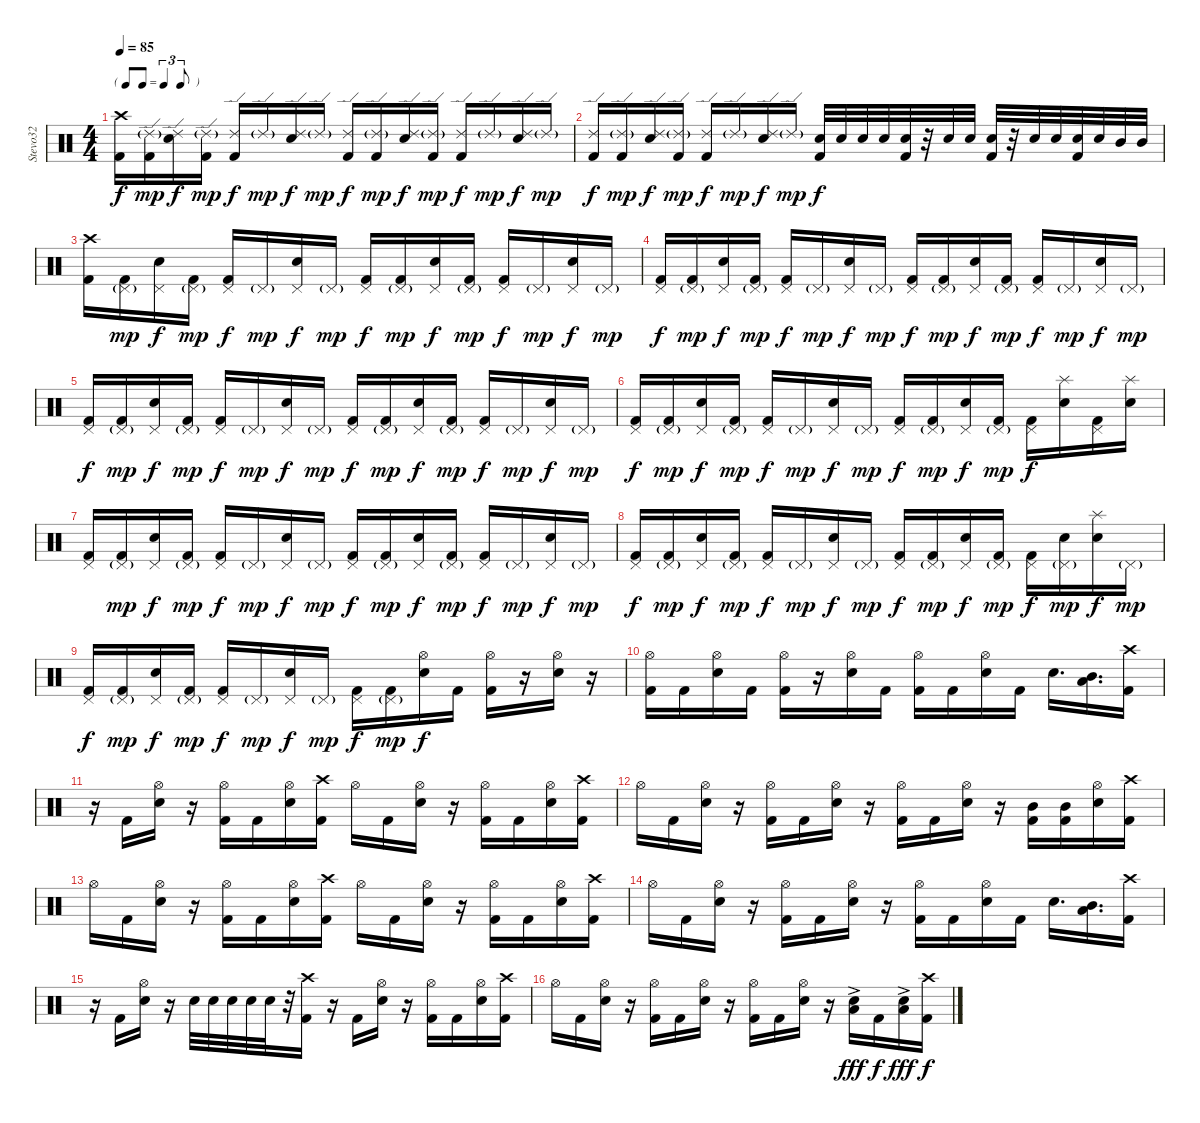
\track ("Stevo32" "Stevo32") {instrument percussion}
\staff {score}
\articulation defaults
\ts (4 4)
\tf triplet8th
\tempo 85
\clef neutral
\ks c
("Crash high (hit)" "Kick (hit) 2").16{dy f} ("Ride (edge) 2"{g} "Kick (hit) 2").16{dy mp} ("Ride (edge) 2" "Electric Snare (hit)").16{dy f} ("Ride (edge) 2"{g} "Kick (hit) 2").16{dy mp} ("Ride (edge) 2" "Kick (hit) 2").16{dy f} "Ride (edge) 2"{g}.16{dy mp} ("Ride (edge) 2" "Electric Snare (hit)").16{dy f} "Ride (edge) 2"{g}.16{dy mp} ("Ride (edge) 2" "Kick (hit) 2").16{dy f} ("Ride (edge) 2"{g} "Kick (hit) 2").16{dy mp} ("Ride (edge) 2" "Electric Snare (hit)").16{dy f} ("Ride (edge) 2"{g} "Kick (hit) 2").16{dy mp} ("Ride (edge) 2" "Kick (hit) 2").16{dy f} "Ride (edge) 2"{g}.16{dy mp} ("Ride (edge) 2" "Electric Snare (hit)").16{dy f} "Ride (edge) 2"{g}.16{dy mp} |
("Ride (edge) 2" "Kick (hit) 2").16{dy f} ("Ride (edge) 2"{g} "Kick (hit) 2").16{dy mp} ("Ride (edge) 2" "Electric Snare (hit)").16{dy f} ("Ride (edge) 2"{g} "Kick (hit) 2").16{dy mp} ("Ride (edge) 2" "Kick (hit) 2").16{dy f} "Ride (edge) 2"{g}.16{dy mp} ("Ride (edge) 2" "Electric Snare (hit)").16{dy f} "Ride (edge) 2"{g}.16{dy mp} ("Electric Snare (hit)" "Kick (hit) 2").32{dy f} "Electric Snare (hit)".32 "Electric Snare (hit)".32 "Electric Snare (hit)".32 ("Electric Snare (hit)" "Kick (hit) 2").32 r.32 "Electric Snare (hit)".32 "Electric Snare (hit)".32 ("Electric Snare (hit)" "Kick (hit) 2").32 r.32 "Electric Snare (hit)".32 "Electric Snare (hit)".32 ("Electric Snare (hit)" "Kick (hit) 2").32 "Electric Snare (hit)".32 "Mid Tom (hit)".32 "Mid Tom (hit)".32 |
("Crash high (hit)" "Kick (hit) 2").16 ("Pedal Hi-Hat (hit)"{g} "Kick (hit) 2").16{dy mp} ("Pedal Hi-Hat (hit)" "Electric Snare (hit)").16{dy f} ("Pedal Hi-Hat (hit)"{g} "Kick (hit) 2").16{dy mp} ("Pedal Hi-Hat (hit)" "Kick (hit) 2").16{dy f} "Pedal Hi-Hat (hit)"{g}.16{dy mp} ("Pedal Hi-Hat (hit)" "Electric Snare (hit)").16{dy f} "Pedal Hi-Hat (hit)"{g}.16{dy mp} ("Pedal Hi-Hat (hit)" "Kick (hit) 2").16{dy f} ("Pedal Hi-Hat (hit)"{g} "Kick (hit) 2").16{dy mp} ("Pedal Hi-Hat (hit)" "Electric Snare (hit)").16{dy f} ("Pedal Hi-Hat (hit)"{g} "Kick (hit) 2").16{dy mp} ("Pedal Hi-Hat (hit)" "Kick (hit) 2").16{dy f} "Pedal Hi-Hat (hit)"{g}.16{dy mp} ("Pedal Hi-Hat (hit)" "Electric Snare (hit)").16{dy f} "Pedal Hi-Hat (hit)"{g}.16{dy mp} |
("Pedal Hi-Hat (hit)" "Kick (hit) 2").16{dy f} ("Pedal Hi-Hat (hit)"{g} "Kick (hit) 2").16{dy mp} ("Pedal Hi-Hat (hit)" "Electric Snare (hit)").16{dy f} ("Pedal Hi-Hat (hit)"{g} "Kick (hit) 2").16{dy mp} ("Pedal Hi-Hat (hit)" "Kick (hit) 2").16{dy f} "Pedal Hi-Hat (hit)"{g}.16{dy mp} ("Pedal Hi-Hat (hit)" "Electric Snare (hit)").16{dy f} "Pedal Hi-Hat (hit)"{g}.16{dy mp} ("Pedal Hi-Hat (hit)" "Kick (hit) 2").16{dy f} ("Pedal Hi-Hat (hit)"{g} "Kick (hit) 2").16{dy mp} ("Pedal Hi-Hat (hit)" "Electric Snare (hit)").16{dy f} ("Pedal Hi-Hat (hit)"{g} "Kick (hit) 2").16{dy mp} ("Pedal Hi-Hat (hit)" "Kick (hit) 2").16{dy f} "Pedal Hi-Hat (hit)"{g}.16{dy mp} ("Pedal Hi-Hat (hit)" "Electric Snare (hit)").16{dy f} "Pedal Hi-Hat (hit)"{g}.16{dy mp} |
("Pedal Hi-Hat (hit)" "Kick (hit) 2").16{dy f} ("Pedal Hi-Hat (hit)"{g} "Kick (hit) 2").16{dy mp} ("Pedal Hi-Hat (hit)" "Electric Snare (hit)").16{dy f} ("Pedal Hi-Hat (hit)"{g} "Kick (hit) 2").16{dy mp} ("Pedal Hi-Hat (hit)" "Kick (hit) 2").16{dy f} "Pedal Hi-Hat (hit)"{g}.16{dy mp} ("Pedal Hi-Hat (hit)" "Electric Snare (hit)").16{dy f} "Pedal Hi-Hat (hit)"{g}.16{dy mp} ("Pedal Hi-Hat (hit)" "Kick (hit) 2").16{dy f} ("Pedal Hi-Hat (hit)"{g} "Kick (hit) 2").16{dy mp} ("Pedal Hi-Hat (hit)" "Electric Snare (hit)").16{dy f} ("Pedal Hi-Hat (hit)"{g} "Kick (hit) 2").16{dy mp} ("Pedal Hi-Hat (hit)" "Kick (hit) 2").16{dy f} "Pedal Hi-Hat (hit)"{g}.16{dy mp} ("Pedal Hi-Hat (hit)" "Electric Snare (hit)").16{dy f} "Pedal Hi-Hat (hit)"{g}.16{dy mp} |
("Pedal Hi-Hat (hit)" "Kick (hit) 2").16{dy f} ("Pedal Hi-Hat (hit)"{g} "Kick (hit) 2").16{dy mp} ("Pedal Hi-Hat (hit)" "Electric Snare (hit)").16{dy f} ("Pedal Hi-Hat (hit)"{g} "Kick (hit) 2").16{dy mp} ("Pedal Hi-Hat (hit)" "Kick (hit) 2").16{dy f} "Pedal Hi-Hat (hit)"{g}.16{dy mp} ("Pedal Hi-Hat (hit)" "Electric Snare (hit)").16{dy f} "Pedal Hi-Hat (hit)"{g}.16{dy mp} ("Pedal Hi-Hat (hit)" "Kick (hit) 2").16{dy f} ("Pedal Hi-Hat (hit)"{g} "Kick (hit) 2").16{dy mp} ("Pedal Hi-Hat (hit)" "Electric Snare (hit)").16{dy f} ("Pedal Hi-Hat (hit)"{g} "Kick (hit) 2").16{dy mp} ("Pedal Hi-Hat (hit)" "Kick (hit) 2").16{dy f} ("Splash (hit)" "Electric Snare (hit)").16 ("Pedal Hi-Hat (hit)" "Kick (hit) 2").16 ("Splash (hit)" "Electric Snare (hit)").16 |
("Pedal Hi-Hat (hit)" "Kick (hit) 2").16 ("Pedal Hi-Hat (hit)"{g} "Kick (hit) 2").16{dy mp} ("Pedal Hi-Hat (hit)" "Electric Snare (hit)").16{dy f} ("Pedal Hi-Hat (hit)"{g} "Kick (hit) 2").16{dy mp} ("Pedal Hi-Hat (hit)" "Kick (hit) 2").16{dy f} "Pedal Hi-Hat (hit)"{g}.16{dy mp} ("Pedal Hi-Hat (hit)" "Electric Snare (hit)").16{dy f} "Pedal Hi-Hat (hit)"{g}.16{dy mp} ("Pedal Hi-Hat (hit)" "Kick (hit) 2").16{dy f} ("Pedal Hi-Hat (hit)"{g} "Kick (hit) 2").16{dy mp} ("Pedal Hi-Hat (hit)" "Electric Snare (hit)").16{dy f} ("Pedal Hi-Hat (hit)"{g} "Kick (hit) 2").16{dy mp} ("Pedal Hi-Hat (hit)" "Kick (hit) 2").16{dy f} "Pedal Hi-Hat (hit)"{g}.16{dy mp} ("Pedal Hi-Hat (hit)" "Electric Snare (hit)").16{dy f} "Pedal Hi-Hat (hit)"{g}.16{dy mp} |
("Pedal Hi-Hat (hit)" "Kick (hit) 2").16{dy f} ("Pedal Hi-Hat (hit)"{g} "Kick (hit) 2").16{dy mp} ("Pedal Hi-Hat (hit)" "Electric Snare (hit)").16{dy f} ("Pedal Hi-Hat (hit)"{g} "Kick (hit) 2").16{dy mp} ("Pedal Hi-Hat (hit)" "Kick (hit) 2").16{dy f} "Pedal Hi-Hat (hit)"{g}.16{dy mp} ("Pedal Hi-Hat (hit)" "Electric Snare (hit)").16{dy f} "Pedal Hi-Hat (hit)"{g}.16{dy mp} ("Pedal Hi-Hat (hit)" "Kick (hit) 2").16{dy f} ("Pedal Hi-Hat (hit)"{g} "Kick (hit) 2").16{dy mp} ("Pedal Hi-Hat (hit)" "Electric Snare (hit)").16{dy f} ("Pedal Hi-Hat (hit)"{g} "Kick (hit) 2").16{dy mp} ("Pedal Hi-Hat (hit)" "Kick (hit) 2").16{dy f} ("Pedal Hi-Hat (hit)"{g} "Electric Snare (hit)").16{dy mp} ("Splash (hit)" "Electric Snare (hit)").16{dy f} "Pedal Hi-Hat (hit)"{g}.16{dy mp} |
("Pedal Hi-Hat (hit)" "Kick (hit) 2").16{dy f} ("Pedal Hi-Hat (hit)"{g} "Kick (hit) 2").16{dy mp} ("Pedal Hi-Hat (hit)" "Electric Snare (hit)").16{dy f} ("Pedal Hi-Hat (hit)"{g} "Kick (hit) 2").16{dy mp} ("Pedal Hi-Hat (hit)" "Kick (hit) 2").16{dy f} "Pedal Hi-Hat (hit)"{g}.16{dy mp} ("Pedal Hi-Hat (hit)" "Electric Snare (hit)").16{dy f} "Pedal Hi-Hat (hit)"{g}.16{dy mp} ("Pedal Hi-Hat (hit)" "Kick (hit) 2").16{dy f} ("Pedal Hi-Hat (hit)"{g} "Kick (hit) 2").16{dy mp} ("Hi-Hat (open)" "Electric Snare (hit)").16{dy f} "Kick (hit) 2".16 ("Hi-Hat (open)" "Kick (hit) 2").16 r.16 ("Hi-Hat (open)" "Electric Snare (hit)").16 r.16 |
("Hi-Hat (open)" "Kick (hit) 2").16 "Kick (hit) 2".16 ("Hi-Hat (open)" "Electric Snare (hit)").16 "Kick (hit) 2".16 ("Hi-Hat (open)" "Kick (hit) 2").16 r.16 ("Hi-Hat (open)" "Electric Snare (hit)").16 "Kick (hit) 2".16 ("Hi-Hat (open)" "Kick (hit) 2").16 "Kick (hit) 2".16 ("Hi-Hat (open)" "Electric Snare (hit)").16 "Kick (hit) 2".16 "Electric Snare (hit)".16{d} ("Low Tom (hit)" "Mid Tom (hit)").16{d} ("Crash high (hit)" "Kick (hit) 2").16 |
r.16 "Kick (hit) 2".16 ("Hi-Hat (open)" "Electric Snare (hit)").16 r.16 ("Hi-Hat (open)" "Kick (hit) 2").16 "Kick (hit) 2".16 ("Hi-Hat (open)" "Electric Snare (hit)").16 ("Crash high (hit)" "Kick (hit) 2").16 "Hi-Hat (open)".16 "Kick (hit) 2".16 ("Hi-Hat (open)" "Electric Snare (hit)").16 r.16 ("Hi-Hat (open)" "Kick (hit) 2").16 "Kick (hit) 2".16 ("Hi-Hat (open)" "Electric Snare (hit)").16 ("Crash high (hit)" "Kick (hit) 2").16 |
"Hi-Hat (open)".16 "Kick (hit) 2".16 ("Hi-Hat (open)" "Electric Snare (hit)").16 r.16 ("Hi-Hat (open)" "Kick (hit) 2").16 "Kick (hit) 2".16 ("Hi-Hat (open)" "Electric Snare (hit)").16 r.16 ("Hi-Hat (open)" "Kick (hit) 2").16 "Kick (hit) 2".16 ("Hi-Hat (open)" "Electric Snare (hit)").16 r.16 ("Mid Tom (hit)" "Kick (hit) 2").16 ("Mid Tom (hit)" "Kick (hit) 2").16 ("Hi-Hat (open)" "Electric Snare (hit)").16 ("Crash high (hit)" "Kick (hit) 2").16 |
"Hi-Hat (open)".16 "Kick (hit) 2".16 ("Hi-Hat (open)" "Electric Snare (hit)").16 r.16 ("Hi-Hat (open)" "Kick (hit) 2").16 "Kick (hit) 2".16 ("Hi-Hat (open)" "Electric Snare (hit)").16 ("Crash high (hit)" "Kick (hit) 2").16 "Hi-Hat (open)".16 "Kick (hit) 2".16 ("Hi-Hat (open)" "Electric Snare (hit)").16 r.16 ("Hi-Hat (open)" "Kick (hit) 2").16 "Kick (hit) 2".16 ("Hi-Hat (open)" "Electric Snare (hit)").16 ("Crash high (hit)" "Kick (hit) 2").16 |
"Hi-Hat (open)".16 "Kick (hit) 2".16 ("Hi-Hat (open)" "Electric Snare (hit)").16 r.16 ("Hi-Hat (open)" "Kick (hit) 2").16 "Kick (hit) 2".16 ("Hi-Hat (open)" "Electric Snare (hit)").16 r.16 ("Hi-Hat (open)" "Kick (hit) 2").16 "Kick (hit) 2".16 ("Hi-Hat (open)" "Electric Snare (hit)").16 "Kick (hit) 2".16 "Electric Snare (hit)".16{d} ("Low Tom (hit)" "Mid Tom (hit)").16{d} ("Crash high (hit)" "Kick (hit) 2").16 |
r.16 "Kick (hit) 2".16 ("Hi-Hat (open)" "Electric Snare (hit)").16 r.16 "Electric Snare (hit)".32 "Electric Snare (hit)".32 "Electric Snare (hit)".32 "Electric Snare (hit)".32 "Electric Snare (hit)".32 r.32 ("Crash high (hit)" "Kick (hit) 2").16 r.16 "Kick (hit) 2".16 ("Hi-Hat (open)" "Electric Snare (hit)").16 r.16 ("Hi-Hat (open)" "Kick (hit) 2").16 "Kick (hit) 2".16 ("Hi-Hat (open)" "Electric Snare (hit)").16 ("Crash high (hit)" "Kick (hit) 2").16 |
"Hi-Hat (open)".16 "Kick (hit) 2".16 ("Hi-Hat (open)" "Electric Snare (hit)").16 r.16 ("Hi-Hat (open)" "Kick (hit) 2").16 "Kick (hit) 2".16 ("Hi-Hat (open)" "Electric Snare (hit)").16 r.16 ("Hi-Hat (open)" "Kick (hit) 2").16 "Kick (hit) 2".16 ("Hi-Hat (open)" "Electric Snare (hit)").16 r.16 ("Low Tom (hit)"{ac} "Electric Snare (hit)"{ac}).16{dy fff} "Kick (hit) 2".16{dy f} ("Low Tom (hit)"{ac} "Electric Snare (hit)"{ac}).16{dy fff} ("Crash high (hit)" "Kick (hit) 2").16{dy f}
